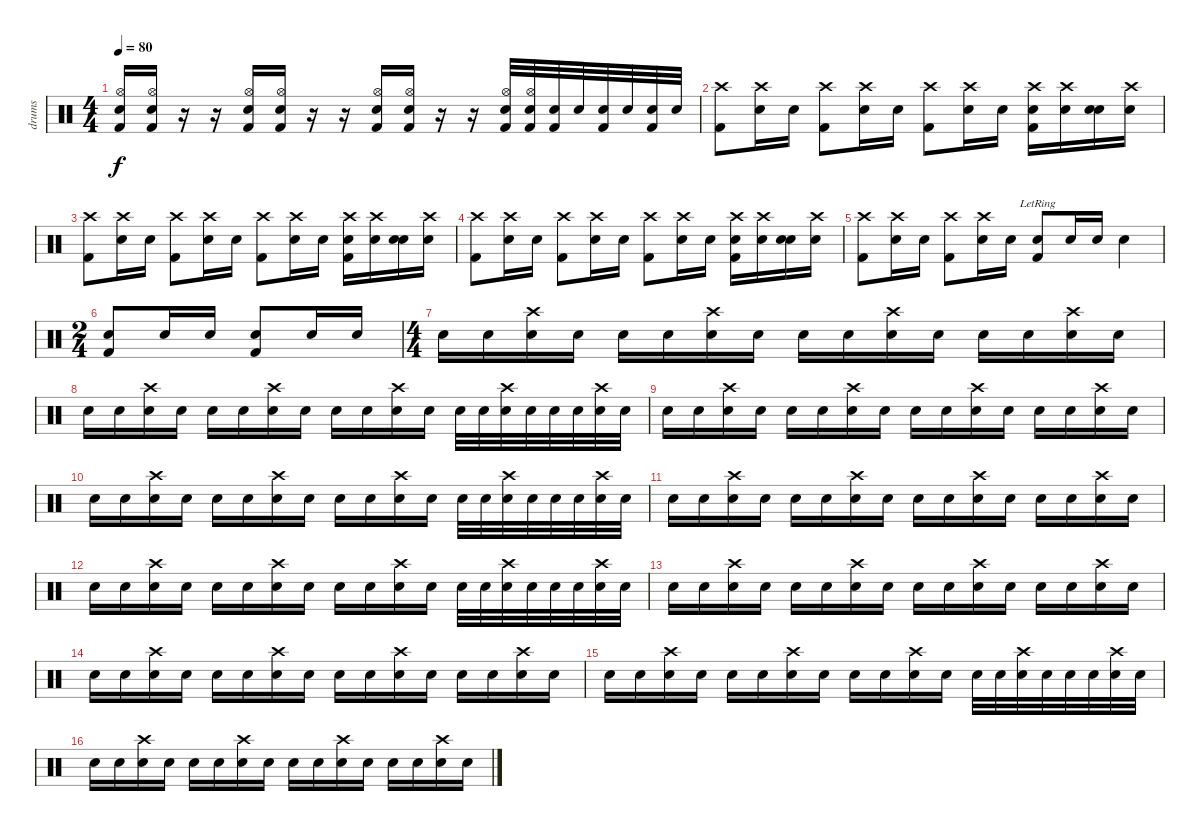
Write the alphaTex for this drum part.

\track ("drums" "drums") {instrument percussion}
\staff {score}
\articulation defaults
\ts (4 4)
\tempo 80
\clef neutral
\ks c
("Kick (hit) 2" "Hi-Hat (open)" "Electric Snare (hit)").16{dy f} ("Kick (hit) 2" "Hi-Hat (open)" "Electric Snare (hit)").16 r.16 r.16 ("Kick (hit) 2" "Hi-Hat (open)" "Electric Snare (hit)").16 ("Kick (hit) 2" "Hi-Hat (open)" "Electric Snare (hit)").16 r.16 r.16 ("Kick (hit) 2" "Hi-Hat (open)" "Electric Snare (hit)").16 ("Kick (hit) 2" "Hi-Hat (open)" "Electric Snare (hit)").16 r.16 r.16 ("Kick (hit) 2" "Hi-Hat (open)" "Electric Snare (hit)").32 ("Kick (hit) 2" "Hi-Hat (open)" "Electric Snare (hit)").32 ("Kick (hit) 2" "Electric Snare (hit)").32 "Electric Snare (hit)".32 ("Kick (hit) 2" "Electric Snare (hit)").32 "Electric Snare (hit)".32 ("Kick (hit) 2" "Electric Snare (hit)").32 "Electric Snare (hit)".32 |
("Kick (hit) 2" "Crash high (hit)").8 ("Electric Snare (hit)" "Crash high (hit)").16 "Electric Snare (hit)".16 ("Kick (hit) 2" "Crash high (hit)").8 ("Electric Snare (hit)" "Crash high (hit)").16 "Electric Snare (hit)".16 ("Kick (hit) 2" "Crash high (hit)").8 ("Electric Snare (hit)" "Crash high (hit)").16 "Electric Snare (hit)".16 ("Kick (hit) 2" "Electric Snare (hit)" "Crash high (hit)").16 ("Electric Snare (hit)" "Crash high (hit)").16 ("Electric Snare (hit)" "Electric Snare (hit)").16 ("Electric Snare (hit)" "Crash high (hit)").16 |
("Kick (hit) 2" "Crash high (hit)").8 ("Electric Snare (hit)" "Crash high (hit)").16 "Electric Snare (hit)".16 ("Kick (hit) 2" "Crash high (hit)").8 ("Electric Snare (hit)" "Crash high (hit)").16 "Electric Snare (hit)".16 ("Kick (hit) 2" "Crash high (hit)").8 ("Electric Snare (hit)" "Crash high (hit)").16 "Electric Snare (hit)".16 ("Kick (hit) 2" "Electric Snare (hit)" "Crash high (hit)").16 ("Electric Snare (hit)" "Crash high (hit)").16 ("Electric Snare (hit)" "Electric Snare (hit)").16 ("Electric Snare (hit)" "Crash high (hit)").16 |
("Kick (hit) 2" "Crash high (hit)").8 ("Electric Snare (hit)" "Crash high (hit)").16 "Electric Snare (hit)".16 ("Kick (hit) 2" "Crash high (hit)").8 ("Electric Snare (hit)" "Crash high (hit)").16 "Electric Snare (hit)".16 ("Kick (hit) 2" "Crash high (hit)").8 ("Electric Snare (hit)" "Crash high (hit)").16 "Electric Snare (hit)".16 ("Kick (hit) 2" "Electric Snare (hit)" "Crash high (hit)").16 ("Electric Snare (hit)" "Crash high (hit)").16 ("Electric Snare (hit)" "Electric Snare (hit)").16 ("Electric Snare (hit)" "Crash high (hit)").16 |
("Kick (hit) 2" "Crash high (hit)").8 ("Electric Snare (hit)" "Crash high (hit)").16 "Electric Snare (hit)".16 ("Kick (hit) 2" "Crash high (hit)").8 ("Electric Snare (hit)" "Crash high (hit)").16 "Electric Snare (hit)".16 ("Kick (hit) 2" "Electric Snare (hit)"{lr}).8 "Electric Snare (hit)".16 "Electric Snare (hit)".16 "Electric Snare (hit)".4 |
\ts (2 4)
("Electric Snare (hit)" "Kick (hit) 2").8 "Electric Snare (hit)".16 "Electric Snare (hit)".16 ("Electric Snare (hit)" "Kick (hit) 2").8 "Electric Snare (hit)".16 "Electric Snare (hit)".16 |
\ts (4 4)
"Electric Snare (hit)".16 "Electric Snare (hit)".16 ("Crash high (hit)" "Electric Snare (hit)").16 "Electric Snare (hit)".16 "Electric Snare (hit)".16 "Electric Snare (hit)".16 ("Crash high (hit)" "Electric Snare (hit)").16 "Electric Snare (hit)".16 "Electric Snare (hit)".16 "Electric Snare (hit)".16 ("Crash high (hit)" "Electric Snare (hit)").16 "Electric Snare (hit)".16 "Electric Snare (hit)".16 "Electric Snare (hit)".16 ("Crash high (hit)" "Electric Snare (hit)").16 "Electric Snare (hit)".16 |
"Electric Snare (hit)".16 "Electric Snare (hit)".16 ("Crash high (hit)" "Electric Snare (hit)").16 "Electric Snare (hit)".16 "Electric Snare (hit)".16 "Electric Snare (hit)".16 ("Crash high (hit)" "Electric Snare (hit)").16 "Electric Snare (hit)".16 "Electric Snare (hit)".16 "Electric Snare (hit)".16 ("Crash high (hit)" "Electric Snare (hit)").16 "Electric Snare (hit)".16 "Electric Snare (hit)".32 "Electric Snare (hit)".32 ("Crash high (hit)" "Electric Snare (hit)").32 "Electric Snare (hit)".32 "Electric Snare (hit)".32 "Electric Snare (hit)".32 ("Crash high (hit)" "Electric Snare (hit)").32 "Electric Snare (hit)".32 |
"Electric Snare (hit)".16 "Electric Snare (hit)".16 ("Crash high (hit)" "Electric Snare (hit)").16 "Electric Snare (hit)".16 "Electric Snare (hit)".16 "Electric Snare (hit)".16 ("Crash high (hit)" "Electric Snare (hit)").16 "Electric Snare (hit)".16 "Electric Snare (hit)".16 "Electric Snare (hit)".16 ("Crash high (hit)" "Electric Snare (hit)").16 "Electric Snare (hit)".16 "Electric Snare (hit)".16 "Electric Snare (hit)".16 ("Crash high (hit)" "Electric Snare (hit)").16 "Electric Snare (hit)".16 |
"Electric Snare (hit)".16 "Electric Snare (hit)".16 ("Crash high (hit)" "Electric Snare (hit)").16 "Electric Snare (hit)".16 "Electric Snare (hit)".16 "Electric Snare (hit)".16 ("Crash high (hit)" "Electric Snare (hit)").16 "Electric Snare (hit)".16 "Electric Snare (hit)".16 "Electric Snare (hit)".16 ("Crash high (hit)" "Electric Snare (hit)").16 "Electric Snare (hit)".16 "Electric Snare (hit)".32 "Electric Snare (hit)".32 ("Crash high (hit)" "Electric Snare (hit)").32 "Electric Snare (hit)".32 "Electric Snare (hit)".32 "Electric Snare (hit)".32 ("Crash high (hit)" "Electric Snare (hit)").32 "Electric Snare (hit)".32 |
"Electric Snare (hit)".16 "Electric Snare (hit)".16 ("Crash high (hit)" "Electric Snare (hit)").16 "Electric Snare (hit)".16 "Electric Snare (hit)".16 "Electric Snare (hit)".16 ("Crash high (hit)" "Electric Snare (hit)").16 "Electric Snare (hit)".16 "Electric Snare (hit)".16 "Electric Snare (hit)".16 ("Crash high (hit)" "Electric Snare (hit)").16 "Electric Snare (hit)".16 "Electric Snare (hit)".16 "Electric Snare (hit)".16 ("Crash high (hit)" "Electric Snare (hit)").16 "Electric Snare (hit)".16 |
"Electric Snare (hit)".16 "Electric Snare (hit)".16 ("Crash high (hit)" "Electric Snare (hit)").16 "Electric Snare (hit)".16 "Electric Snare (hit)".16 "Electric Snare (hit)".16 ("Crash high (hit)" "Electric Snare (hit)").16 "Electric Snare (hit)".16 "Electric Snare (hit)".16 "Electric Snare (hit)".16 ("Crash high (hit)" "Electric Snare (hit)").16 "Electric Snare (hit)".16 "Electric Snare (hit)".32 "Electric Snare (hit)".32 ("Crash high (hit)" "Electric Snare (hit)").32 "Electric Snare (hit)".32 "Electric Snare (hit)".32 "Electric Snare (hit)".32 ("Crash high (hit)" "Electric Snare (hit)").32 "Electric Snare (hit)".32 |
"Electric Snare (hit)".16 "Electric Snare (hit)".16 ("Crash high (hit)" "Electric Snare (hit)").16 "Electric Snare (hit)".16 "Electric Snare (hit)".16 "Electric Snare (hit)".16 ("Crash high (hit)" "Electric Snare (hit)").16 "Electric Snare (hit)".16 "Electric Snare (hit)".16 "Electric Snare (hit)".16 ("Crash high (hit)" "Electric Snare (hit)").16 "Electric Snare (hit)".16 "Electric Snare (hit)".16 "Electric Snare (hit)".16 ("Crash high (hit)" "Electric Snare (hit)").16 "Electric Snare (hit)".16 |
"Electric Snare (hit)".16 "Electric Snare (hit)".16 ("Crash high (hit)" "Electric Snare (hit)").16 "Electric Snare (hit)".16 "Electric Snare (hit)".16 "Electric Snare (hit)".16 ("Crash high (hit)" "Electric Snare (hit)").16 "Electric Snare (hit)".16 "Electric Snare (hit)".16 "Electric Snare (hit)".16 ("Crash high (hit)" "Electric Snare (hit)").16 "Electric Snare (hit)".16 "Electric Snare (hit)".16 "Electric Snare (hit)".16 ("Crash high (hit)" "Electric Snare (hit)").16 "Electric Snare (hit)".16 |
"Electric Snare (hit)".16 "Electric Snare (hit)".16 ("Crash high (hit)" "Electric Snare (hit)").16 "Electric Snare (hit)".16 "Electric Snare (hit)".16 "Electric Snare (hit)".16 ("Crash high (hit)" "Electric Snare (hit)").16 "Electric Snare (hit)".16 "Electric Snare (hit)".16 "Electric Snare (hit)".16 ("Crash high (hit)" "Electric Snare (hit)").16 "Electric Snare (hit)".16 "Electric Snare (hit)".32 "Electric Snare (hit)".32 ("Crash high (hit)" "Electric Snare (hit)").32 "Electric Snare (hit)".32 "Electric Snare (hit)".32 "Electric Snare (hit)".32 ("Crash high (hit)" "Electric Snare (hit)").32 "Electric Snare (hit)".32 |
"Electric Snare (hit)".16 "Electric Snare (hit)".16 ("Crash high (hit)" "Electric Snare (hit)").16 "Electric Snare (hit)".16 "Electric Snare (hit)".16 "Electric Snare (hit)".16 ("Crash high (hit)" "Electric Snare (hit)").16 "Electric Snare (hit)".16 "Electric Snare (hit)".16 "Electric Snare (hit)".16 ("Crash high (hit)" "Electric Snare (hit)").16 "Electric Snare (hit)".16 "Electric Snare (hit)".16 "Electric Snare (hit)".16 ("Crash high (hit)" "Electric Snare (hit)").16 "Electric Snare (hit)".16
